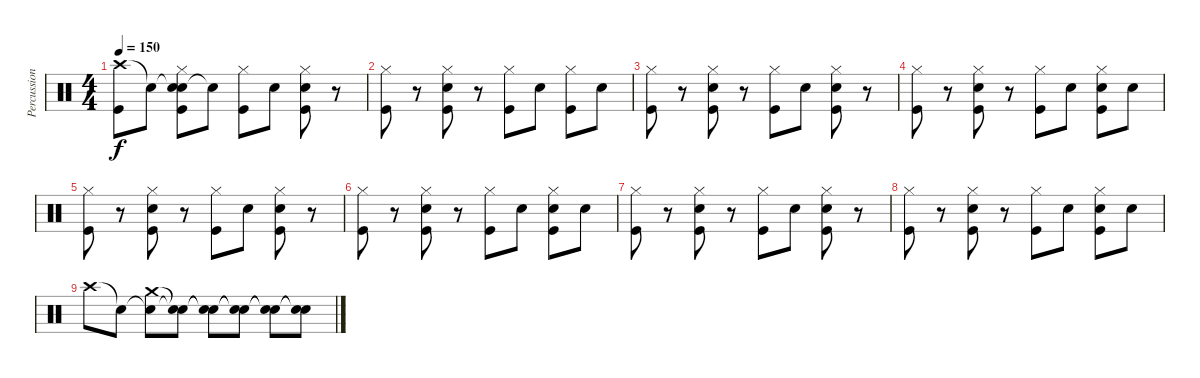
\track ("Percussion" "Percussion") {instrument percussion}
\staff {score}
\articulation defaults
\ts (4 4)
\tempo 150
\clef neutral
\ks c
("Crash high (hit)" "Kick (hit)").8{dy f} "Snare (hit)"{t}.8 ("Snare (hit)"{t} "Hi-Hat (closed)" "Snare (hit) 2" "Kick (hit)").8 "Snare (hit)"{t}.8 ("Hi-Hat (closed)" "Kick (hit)").8 "Snare (hit) 2".8 ("Hi-Hat (closed)" "Snare (hit) 2" "Kick (hit)").8 r.8 |
("Hi-Hat (closed)" "Kick (hit)").8 r.8 ("Hi-Hat (closed)" "Snare (hit) 2" "Kick (hit)").8 r.8 ("Hi-Hat (closed)" "Kick (hit)").8 "Snare (hit) 2".8 ("Hi-Hat (closed)" "Kick (hit)").8 "Snare (hit) 2".8 |
("Hi-Hat (closed)" "Kick (hit)").8 r.8 ("Hi-Hat (closed)" "Snare (hit) 2" "Kick (hit)").8 r.8 ("Hi-Hat (closed)" "Kick (hit)").8 "Snare (hit) 2".8 ("Hi-Hat (closed)" "Snare (hit) 2" "Kick (hit)").8 r.8 |
("Hi-Hat (closed)" "Kick (hit)").8 r.8 ("Hi-Hat (closed)" "Snare (hit) 2" "Kick (hit)").8 r.8 ("Hi-Hat (closed)" "Kick (hit)").8 "Snare (hit) 2".8 ("Hi-Hat (closed)" "Snare (hit) 2" "Kick (hit)").8 "Snare (hit) 2".8 |
("Hi-Hat (closed)" "Kick (hit)").8 r.8 ("Hi-Hat (closed)" "Snare (hit) 2" "Kick (hit)").8 r.8 ("Hi-Hat (closed)" "Kick (hit)").8 "Snare (hit) 2".8 ("Hi-Hat (closed)" "Snare (hit) 2" "Kick (hit)").8 r.8 |
("Hi-Hat (closed)" "Kick (hit)").8 r.8 ("Hi-Hat (closed)" "Snare (hit) 2" "Kick (hit)").8 r.8 ("Hi-Hat (closed)" "Kick (hit)").8 "Snare (hit) 2".8 ("Hi-Hat (closed)" "Snare (hit) 2" "Kick (hit)").8 "Snare (hit) 2".8 |
("Hi-Hat (closed)" "Kick (hit)").8 r.8 ("Hi-Hat (closed)" "Snare (hit) 2" "Kick (hit)").8 r.8 ("Hi-Hat (closed)" "Kick (hit)").8 "Snare (hit) 2".8 ("Hi-Hat (closed)" "Snare (hit) 2" "Kick (hit)").8 r.8 |
("Hi-Hat (closed)" "Kick (hit)").8 r.8 ("Hi-Hat (closed)" "Snare (hit) 2" "Kick (hit)").8 r.8 ("Hi-Hat (closed)" "Kick (hit)").8 "Snare (hit) 2".8 ("Hi-Hat (closed)" "Snare (hit) 2" "Kick (hit)").8 "Snare (hit) 2".8 |
"Crash high (hit)".8 "Snare (hit)"{t}.8 ("Snare (hit)"{t} "Crash medium (hit)").8 ("Snare (hit)"{t} "Snare (hit)"{t}).8 ("Snare (hit)"{t} "Snare (hit)"{t}).8 ("Snare (hit)"{t} "Snare (hit)"{t}).8 ("Snare (hit)"{t} "Snare (hit)"{t}).8 ("Snare (hit)"{t} "Snare (hit)"{t}).8
